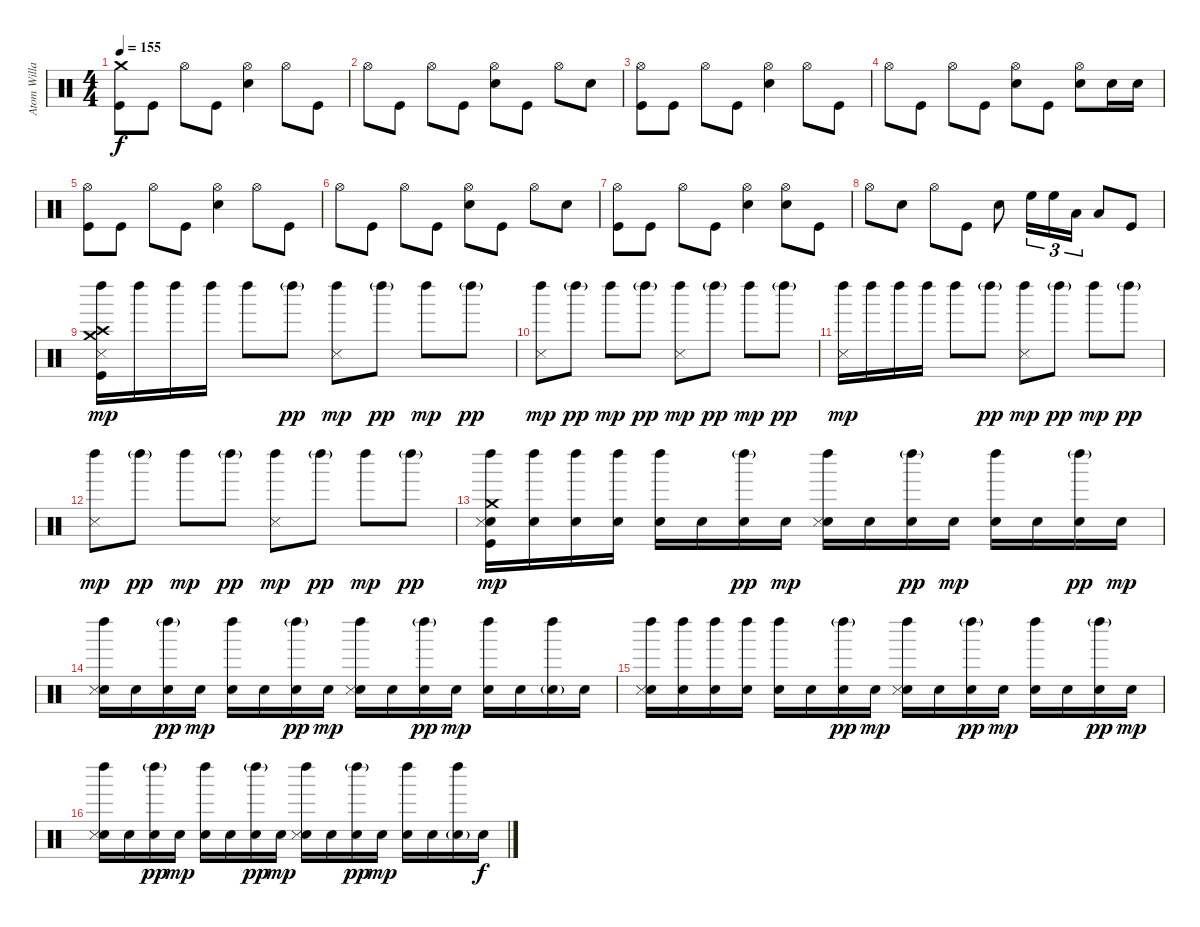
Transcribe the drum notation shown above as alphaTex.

\track ("Atom Willard Drums" "Atom Willa") {instrument percussion}
\staff {score}
\articulation defaults
\ts (4 4)
\tempo 155
\clef neutral
\ks c
("Crash medium (hit)" "Kick (hit)").8{dy f} "Kick (hit)".8 "Hi-Hat (open)".8 "Kick (hit)".8 ("Electric Snare (hit)" "Hi-Hat (open)").4 "Hi-Hat (open)".8 "Kick (hit)".8 |
"Hi-Hat (open)".8 "Kick (hit)".8 "Hi-Hat (open)".8 "Kick (hit)".8 ("Electric Snare (hit)" "Hi-Hat (open)").8 "Kick (hit)".8 "Hi-Hat (open)".8 "Electric Snare (hit)".8 |
("Kick (hit)" "Hi-Hat (open)").8 "Kick (hit)".8 "Hi-Hat (open)".8 "Kick (hit)".8 ("Electric Snare (hit)" "Hi-Hat (open)").4 "Hi-Hat (open)".8 "Kick (hit)".8 |
"Hi-Hat (open)".8 "Kick (hit)".8 "Hi-Hat (open)".8 "Kick (hit)".8 ("Hi-Hat (open)" "Electric Snare (hit)").8 "Kick (hit)".8 ("Electric Snare (hit)" "Hi-Hat (open)").8 "Electric Snare (hit)".16 "Electric Snare (hit)".16 |
("Kick (hit)" "Hi-Hat (open)").8 "Kick (hit)".8 "Hi-Hat (open)".8 "Kick (hit)".8 ("Electric Snare (hit)" "Hi-Hat (open)").4 "Hi-Hat (open)".8 "Kick (hit)".8 |
"Hi-Hat (open)".8 "Kick (hit)".8 "Hi-Hat (open)".8 "Kick (hit)".8 ("Electric Snare (hit)" "Hi-Hat (open)").8 "Kick (hit)".8 "Hi-Hat (open)".8 "Electric Snare (hit)".8 |
("Kick (hit)" "Hi-Hat (open)").8 "Kick (hit)".8 "Hi-Hat (open)".8 "Kick (hit)".8 ("Electric Snare (hit)" "Hi-Hat (open)").4 ("Electric Snare (hit)" "Hi-Hat (open)").8 "Kick (hit)".8 |
"Hi-Hat (open)".8 "Electric Snare (hit)".8 "Hi-Hat (open)".8 "Kick (hit)".8 "Electric Snare (hit)".8 "High Floor Tom (hit)".16{tu (3 2)} "High Floor Tom (hit)".16{tu (3 2)} "Low Tom (hit)".16{tu (3 2)} "Low Tom (hit)".8 "Kick (hit)".8 |
("Kick (hit)" "Crash medium (hit)" "Crash high (hit)" "Left Maraca (hit)" "Snare (side stick) 3").16{dy mp} "Left Maraca (hit)".16 "Left Maraca (hit)".16 "Left Maraca (hit)".16 "Left Maraca (hit)".8 "Left Maraca (hit)"{g}.8{dy pp} ("Left Maraca (hit)" "Snare (side stick) 3").8{dy mp} "Left Maraca (hit)"{g}.8{dy pp} "Left Maraca (hit)".8{dy mp} "Left Maraca (hit)"{g}.8{dy pp} |
("Left Maraca (hit)" "Snare (side stick) 3").8{dy mp} "Left Maraca (hit)"{g}.8{dy pp} "Left Maraca (hit)".8{dy mp} "Left Maraca (hit)"{g}.8{dy pp} ("Left Maraca (hit)" "Snare (side stick) 3").8{dy mp} "Left Maraca (hit)"{g}.8{dy pp} "Left Maraca (hit)".8{dy mp} "Left Maraca (hit)"{g}.8{dy pp} |
("Left Maraca (hit)" "Snare (side stick) 3").16{dy mp} "Left Maraca (hit)".16 "Left Maraca (hit)".16 "Left Maraca (hit)".16 "Left Maraca (hit)".8 "Left Maraca (hit)"{g}.8{dy pp} ("Left Maraca (hit)" "Snare (side stick) 3").8{dy mp} "Left Maraca (hit)"{g}.8{dy pp} "Left Maraca (hit)".8{dy mp} "Left Maraca (hit)"{g}.8{dy pp} |
("Left Maraca (hit)" "Snare (side stick) 3").8{dy mp} "Left Maraca (hit)"{g}.8{dy pp} "Left Maraca (hit)".8{dy mp} "Left Maraca (hit)"{g}.8{dy pp} ("Left Maraca (hit)" "Snare (side stick) 3").8{dy mp} "Left Maraca (hit)"{g}.8{dy pp} "Left Maraca (hit)".8{dy mp} "Left Maraca (hit)"{g}.8{dy pp} |
("Kick (hit)" "Electric Snare (hit)" "Crash medium (hit)" "Left Maraca (hit)" "Snare (side stick) 3").16{dy mp} ("Electric Snare (hit)" "Left Maraca (hit)").16 ("Electric Snare (hit)" "Left Maraca (hit)").16 ("Electric Snare (hit)" "Left Maraca (hit)").16 ("Electric Snare (hit)" "Left Maraca (hit)").16 "Electric Snare (hit)".16 ("Electric Snare (hit)" "Left Maraca (hit)"{g}).16{dy pp} "Electric Snare (hit)".16{dy mp} ("Electric Snare (hit)" "Left Maraca (hit)" "Snare (side stick) 3").16 "Electric Snare (hit)".16 ("Electric Snare (hit)" "Left Maraca (hit)"{g}).16{dy pp} "Electric Snare (hit)".16{dy mp} ("Electric Snare (hit)" "Left Maraca (hit)").16 "Electric Snare (hit)".16 ("Electric Snare (hit)" "Left Maraca (hit)"{g}).16{dy pp} "Electric Snare (hit)".16{dy mp} |
("Electric Snare (hit)" "Left Maraca (hit)" "Snare (side stick) 3").16 "Electric Snare (hit)".16 ("Electric Snare (hit)" "Left Maraca (hit)"{g}).16{dy pp} "Electric Snare (hit)".16{dy mp} ("Electric Snare (hit)" "Left Maraca (hit)").16 "Electric Snare (hit)".16 ("Electric Snare (hit)" "Left Maraca (hit)"{g}).16{dy pp} "Electric Snare (hit)".16{dy mp} ("Electric Snare (hit)" "Left Maraca (hit)" "Snare (side stick) 3").16 "Electric Snare (hit)".16 ("Electric Snare (hit)" "Left Maraca (hit)"{g}).16{dy pp} "Electric Snare (hit)".16{dy mp} ("Electric Snare (hit)" "Left Maraca (hit)").16 "Electric Snare (hit)".16 ("Electric Snare (hit)"{g} "Left Maraca (hit)").16 "Electric Snare (hit)".16 |
("Electric Snare (hit)" "Left Maraca (hit)" "Snare (side stick) 3").16 ("Electric Snare (hit)" "Left Maraca (hit)").16 ("Electric Snare (hit)" "Left Maraca (hit)").16 ("Electric Snare (hit)" "Left Maraca (hit)").16 ("Electric Snare (hit)" "Left Maraca (hit)").16 "Electric Snare (hit)".16 ("Electric Snare (hit)" "Left Maraca (hit)"{g}).16{dy pp} "Electric Snare (hit)".16{dy mp} ("Electric Snare (hit)" "Left Maraca (hit)" "Snare (side stick) 3").16 "Electric Snare (hit)".16 ("Electric Snare (hit)" "Left Maraca (hit)"{g}).16{dy pp} "Electric Snare (hit)".16{dy mp} ("Electric Snare (hit)" "Left Maraca (hit)").16 "Electric Snare (hit)".16 ("Electric Snare (hit)" "Left Maraca (hit)"{g}).16{dy pp} "Electric Snare (hit)".16{dy mp} |
("Electric Snare (hit)" "Left Maraca (hit)" "Snare (side stick) 3").16 "Electric Snare (hit)".16 ("Electric Snare (hit)" "Left Maraca (hit)"{g}).16{dy pp} "Electric Snare (hit)".16{dy mp} ("Electric Snare (hit)" "Left Maraca (hit)").16 "Electric Snare (hit)".16 ("Electric Snare (hit)" "Left Maraca (hit)"{g}).16{dy pp} "Electric Snare (hit)".16{dy mp} ("Electric Snare (hit)" "Left Maraca (hit)" "Snare (side stick) 3").16 "Electric Snare (hit)".16 ("Electric Snare (hit)" "Left Maraca (hit)"{g}).16{dy pp} "Electric Snare (hit)".16{dy mp} ("Electric Snare (hit)" "Left Maraca (hit)").16 "Electric Snare (hit)".16 ("Electric Snare (hit)"{g} "Left Maraca (hit)").16 "Electric Snare (hit)".16{dy f}
